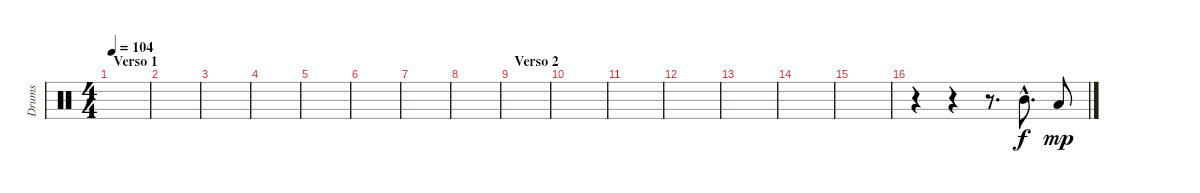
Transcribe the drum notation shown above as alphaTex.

\track ("Drums" "Drums") {instrument percussion}
\staff {score}
\articulation defaults
\ts (4 4)
\section ("" "Verso 1")
\tempo 104
\clef neutral
\ks c
|
|
|
|
|
|
|
|
\section ("" "Verso 2")
|
|
|
|
|
|
|
r.4 r.4 r.8{d} "Mid Tom (hit)"{hac}.8{d} "Low Tom (hit)".8{dy mp}
